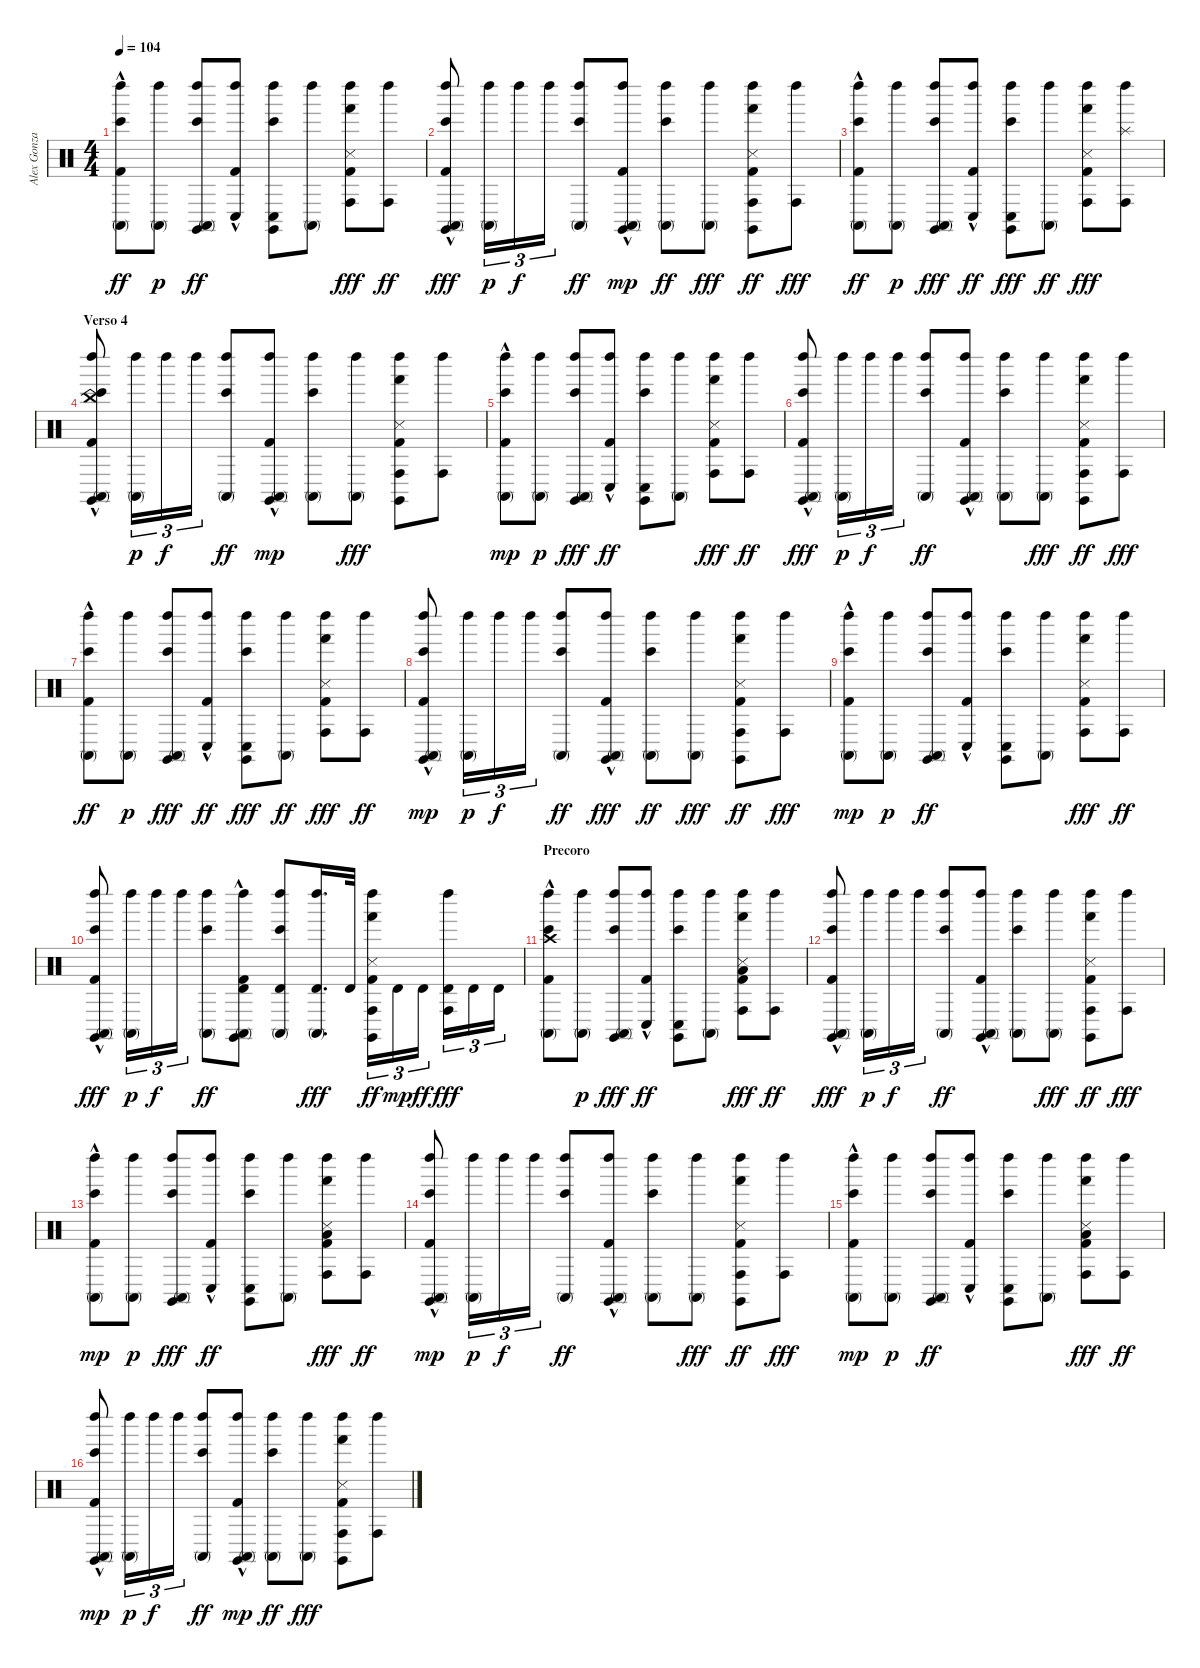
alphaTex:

\track ("Alex Gonzalez" "Alex Gonza") {instrument percussion}
\staff {score}
\articulation defaults
\ts (4 4)
\tempo 104
\clef neutral
\ks c
("Conga high (mute)" "Kick (hit) 2"{hac} "Bongo High (hit)" "Left Maraca (hit)").8{dy ff} ("Conga high (mute)" "Left Maraca (hit)").8{dy p} ("Left Maraca (hit)" "Conga high (mute)" "Claves (hit)" "Bongo High (hit)").8{dy ff} ("Conga low (hit)" "Kick (hit) 2"{hac} "Left Maraca (hit)").8 ("Claves (hit)" "Conga low (hit)" "Bongo High (hit)" "Left Maraca (hit)").8 ("Conga high (mute)" "Left Maraca (hit)").8 ("Left Maraca (hit)" "Conga high (hit)" "Snare (side stick) 3" "Hand (hit)" "Kick (hit) 2").8{dy fff} ("Conga high (hit)" "Left Maraca (hit)").8{dy ff} |
("Conga high (mute)" "Claves (hit)"{hac} "Kick (hit) 2"{hac} "Bongo High (hit)" "Left Maraca (hit)").8{dy fff} ("Conga high (mute)" "Left Maraca (hit)").16{tu (3 2) dy p} "Left Maraca (hit)".16{tu (3 2) dy f} "Left Maraca (hit)".16{tu (3 2)} ("Conga high (mute)" "Bongo High (hit)" "Left Maraca (hit)").8{dy ff} ("Kick (hit) 2"{hac} "Left Maraca (hit)" "Claves (hit)"{hac} "Conga high (mute)").8{dy mp} ("Conga high (mute)" "Bongo High (hit)" "Left Maraca (hit)").8{dy ff} ("Conga high (mute)" "Left Maraca (hit)").8{dy fff} ("Conga high (hit)" "Kick (hit) 2" "Hand (hit)" "Snare (side stick) 3" "Left Maraca (hit)" "Claves (hit)").8{dy ff} ("Conga high (hit)" "Left Maraca (hit)").8{dy fff} |
("Bongo High (hit)" "Conga high (mute)" "Kick (hit) 2"{hac} "Left Maraca (hit)").8{dy ff} ("Conga high (mute)" "Left Maraca (hit)").8{dy p} ("Claves (hit)" "Conga high (mute)" "Bongo High (hit)" "Left Maraca (hit)").8{dy fff} ("Conga low (hit)" "Kick (hit) 2"{hac} "Left Maraca (hit)").8{dy ff} ("Conga low (hit)" "Left Maraca (hit)" "Bongo High (hit)" "Claves (hit)").8{dy fff} ("Conga high (mute)" "Left Maraca (hit)").8{dy ff} ("Left Maraca (hit)" "Snare (side stick) 3" "Kick (hit) 2" "Hand (hit)" "Conga high (hit)").8{dy fff} ("Conga high (hit)" "Left Maraca (hit)" "Splash (hit)").8 |
\section ("" "Verso 4")
("Claves (hit)"{hac} "Bongo High (hit)" "China (hit)" "Kick (hit) 2"{hac} "Conga high (mute)" "Left Maraca (hit)").8 ("Conga high (mute)" "Left Maraca (hit)").16{tu (3 2) dy p} "Left Maraca (hit)".16{tu (3 2) dy f} "Left Maraca (hit)".16{tu (3 2)} ("Conga high (mute)" "Bongo High (hit)" "Left Maraca (hit)").8{dy ff} ("Left Maraca (hit)" "Kick (hit) 2"{hac} "Conga high (mute)" "Claves (hit)"{hac}).8{dy mp} ("Bongo High (hit)" "Left Maraca (hit)" "Conga high (mute)").8 ("Conga high (mute)" "Left Maraca (hit)").8{dy fff} ("Left Maraca (hit)" "Conga high (hit)" "Snare (side stick) 3" "Kick (hit) 2" "Hand (hit)" "Claves (hit)").8 ("Conga high (hit)" "Left Maraca (hit)").8 |
("Left Maraca (hit)" "Bongo High (hit)" "Kick (hit) 2"{hac} "Conga high (mute)").8{dy mp} ("Conga high (mute)" "Left Maraca (hit)").8{dy p} ("Claves (hit)" "Conga high (mute)" "Bongo High (hit)" "Left Maraca (hit)").8{dy fff} ("Conga low (hit)" "Kick (hit) 2"{hac} "Left Maraca (hit)").8{dy ff} ("Bongo High (hit)" "Conga low (hit)" "Left Maraca (hit)" "Claves (hit)").8 ("Conga high (mute)" "Left Maraca (hit)").8 ("Hand (hit)" "Kick (hit) 2" "Conga high (hit)" "Snare (side stick) 3" "Left Maraca (hit)").8{dy fff} ("Conga high (hit)" "Left Maraca (hit)").8{dy ff} |
("Conga high (mute)" "Claves (hit)"{hac} "Kick (hit) 2"{hac} "Bongo High (hit)" "Left Maraca (hit)").8{dy fff} ("Conga high (mute)" "Left Maraca (hit)").16{tu (3 2) dy p} "Left Maraca (hit)".16{tu (3 2) dy f} "Left Maraca (hit)".16{tu (3 2)} ("Conga high (mute)" "Bongo High (hit)" "Left Maraca (hit)").8{dy ff} ("Claves (hit)"{hac} "Conga high (mute)" "Kick (hit) 2"{hac} "Left Maraca (hit)").8 ("Conga high (mute)" "Bongo High (hit)" "Left Maraca (hit)").8 ("Conga high (mute)" "Left Maraca (hit)").8{dy fff} ("Claves (hit)" "Conga high (hit)" "Kick (hit) 2" "Snare (side stick) 3" "Hand (hit)" "Left Maraca (hit)").8{dy ff} ("Conga high (hit)" "Left Maraca (hit)").8{dy fff} |
("Conga high (mute)" "Kick (hit) 2"{hac} "Bongo High (hit)" "Left Maraca (hit)").8{dy ff} ("Conga high (mute)" "Left Maraca (hit)").8{dy p} ("Claves (hit)" "Conga high (mute)" "Bongo High (hit)" "Left Maraca (hit)").8{dy fff} ("Conga low (hit)" "Kick (hit) 2"{hac} "Left Maraca (hit)").8{dy ff} ("Conga low (hit)" "Claves (hit)" "Left Maraca (hit)" "Bongo High (hit)").8{dy fff} ("Conga high (mute)" "Left Maraca (hit)").8{dy ff} ("Conga high (hit)" "Kick (hit) 2" "Hand (hit)" "Left Maraca (hit)" "Snare (side stick) 3").8{dy fff} ("Conga high (hit)" "Left Maraca (hit)").8{dy ff} |
("Bongo High (hit)" "Claves (hit)"{hac} "Kick (hit) 2"{hac} "Left Maraca (hit)" "Conga high (mute)").8{dy mp} ("Conga high (mute)" "Left Maraca (hit)").16{tu (3 2) dy p} "Left Maraca (hit)".16{tu (3 2) dy f} "Left Maraca (hit)".16{tu (3 2)} ("Conga high (mute)" "Bongo High (hit)" "Left Maraca (hit)").8{dy ff} ("Conga high (mute)" "Left Maraca (hit)" "Kick (hit) 2"{hac} "Claves (hit)"{hac}).8{dy fff} ("Conga high (mute)" "Bongo High (hit)" "Left Maraca (hit)").8{dy ff} ("Conga high (mute)" "Left Maraca (hit)").8{dy fff} ("Claves (hit)" "Conga high (hit)" "Kick (hit) 2" "Snare (side stick) 3" "Hand (hit)" "Left Maraca (hit)").8{dy ff} ("Conga high (hit)" "Left Maraca (hit)").8{dy fff} |
("Bongo High (hit)" "Kick (hit) 2"{hac} "Left Maraca (hit)" "Conga high (mute)").8{dy mp} ("Conga high (mute)" "Left Maraca (hit)").8{dy p} ("Claves (hit)" "Left Maraca (hit)" "Conga high (mute)" "Bongo High (hit)").8{dy ff} ("Kick (hit) 2"{hac} "Left Maraca (hit)" "Conga low (hit)").8 ("Claves (hit)" "Conga low (hit)" "Bongo High (hit)" "Left Maraca (hit)").8 ("Conga high (mute)" "Left Maraca (hit)").8 ("Hand (hit)" "Conga high (hit)" "Snare (side stick) 3" "Kick (hit) 2" "Left Maraca (hit)").8{dy fff} ("Conga high (hit)" "Left Maraca (hit)").8{dy ff} |
("Conga high (mute)" "Claves (hit)"{hac} "Kick (hit) 2"{hac} "Bongo High (hit)" "Left Maraca (hit)").8{dy fff} ("Conga high (mute)" "Left Maraca (hit)").16{tu (3 2) dy p} "Left Maraca (hit)".16{tu (3 2) dy f} "Left Maraca (hit)".16{tu (3 2)} ("Left Maraca (hit)" "Conga high (mute)" "Bongo High (hit)").8{dy ff} ("Kick (hit) 2"{hac} "Conga high (mute)" "Claves (hit)"{hac} "Timbale high (hit)" "Left Maraca (hit)").8 ("Timbale high (hit)" "Conga high (mute)" "Bongo High (hit)" "Left Maraca (hit)").8 ("Timbale high (hit)" "Conga high (mute)" "Left Maraca (hit)").16{d dy fff} "Timbale high (hit)".32 ("Claves (hit)" "Conga high (hit)" "Kick (hit) 2" "Snare (side stick) 3" "Hand (hit)" "Left Maraca (hit)").16{tu (3 2) dy ff} "Timbale high (hit)".16{tu (3 2) dy mp} "Timbale high (hit)".16{tu (3 2) dy ff} ("Timbale high (hit)" "Conga high (hit)" "Left Maraca (hit)").16{tu (3 2) dy fff} "Timbale high (hit)".16{tu (3 2)} "Timbale high (hit)".16{tu (3 2)} |
\section ("" "Precoro")
("Bongo High (hit)" "Conga high (mute)" "Kick (hit) 2"{hac} "Left Maraca (hit)" "Crash high (hit)").8 ("Conga high (mute)" "Left Maraca (hit)").8{dy p} ("Claves (hit)" "Bongo High (hit)" "Left Maraca (hit)" "Conga high (mute)").8{dy fff} ("Left Maraca (hit)" "Conga low (hit)" "Kick (hit) 2"{hac}).8{dy ff} ("Claves (hit)" "Conga low (hit)" "Bongo High (hit)" "Left Maraca (hit)").8 ("Conga high (mute)" "Left Maraca (hit)").8 ("Left Maraca (hit)" "Snare (side stick) 3" "Low Tom (hit)" "Conga high (hit)" "Hand (hit)" "Kick (hit) 2").8{dy fff} ("Conga high (hit)" "Left Maraca (hit)").8{dy ff} |
("Bongo High (hit)" "Claves (hit)"{hac} "Left Maraca (hit)" "Conga high (mute)" "Kick (hit) 2"{hac}).8{dy fff} ("Conga high (mute)" "Left Maraca (hit)").16{tu (3 2) dy p} "Left Maraca (hit)".16{tu (3 2) dy f} "Left Maraca (hit)".16{tu (3 2)} ("Left Maraca (hit)" "Conga high (mute)" "Bongo High (hit)").8{dy ff} ("Claves (hit)"{hac} "Conga high (mute)" "Kick (hit) 2"{hac} "Left Maraca (hit)").8 ("Conga high (mute)" "Bongo High (hit)" "Left Maraca (hit)").8 ("Conga high (mute)" "Left Maraca (hit)").8{dy fff} ("Claves (hit)" "Conga high (hit)" "Kick (hit) 2" "Snare (side stick) 3" "Hand (hit)" "Left Maraca (hit)").8{dy ff} ("Conga high (hit)" "Left Maraca (hit)").8{dy fff} |
("Left Maraca (hit)" "Bongo High (hit)" "Kick (hit) 2"{hac} "Conga high (mute)").8{dy mp} ("Conga high (mute)" "Left Maraca (hit)").8{dy p} ("Left Maraca (hit)" "Bongo High (hit)" "Conga high (mute)" "Claves (hit)").8{dy fff} ("Conga low (hit)" "Kick (hit) 2"{hac} "Left Maraca (hit)").8{dy ff} ("Bongo High (hit)" "Left Maraca (hit)" "Claves (hit)" "Conga low (hit)").8 ("Conga high (mute)" "Left Maraca (hit)").8 ("Low Tom (hit)" "Snare (side stick) 3" "Kick (hit) 2" "Hand (hit)" "Left Maraca (hit)" "Conga high (hit)").8{dy fff} ("Conga high (hit)" "Left Maraca (hit)").8{dy ff} |
("Kick (hit) 2"{hac} "Claves (hit)"{hac} "Left Maraca (hit)" "Bongo High (hit)" "Conga high (mute)").8{dy mp} ("Conga high (mute)" "Left Maraca (hit)").16{tu (3 2) dy p} "Left Maraca (hit)".16{tu (3 2) dy f} "Left Maraca (hit)".16{tu (3 2)} ("Conga high (mute)" "Bongo High (hit)" "Left Maraca (hit)").8{dy ff} ("Claves (hit)"{hac} "Conga high (mute)" "Kick (hit) 2"{hac} "Left Maraca (hit)").8 ("Left Maraca (hit)" "Conga high (mute)" "Bongo High (hit)").8 ("Conga high (mute)" "Left Maraca (hit)").8{dy fff} ("Claves (hit)" "Conga high (hit)" "Kick (hit) 2" "Snare (side stick) 3" "Hand (hit)" "Left Maraca (hit)").8{dy ff} ("Conga high (hit)" "Left Maraca (hit)").8{dy fff} |
("Left Maraca (hit)" "Bongo High (hit)" "Kick (hit) 2"{hac} "Conga high (mute)").8{dy mp} ("Conga high (mute)" "Left Maraca (hit)").8{dy p} ("Conga high (mute)" "Claves (hit)" "Left Maraca (hit)" "Bongo High (hit)").8{dy ff} ("Conga low (hit)" "Kick (hit) 2"{hac} "Left Maraca (hit)").8 ("Claves (hit)" "Conga low (hit)" "Bongo High (hit)" "Left Maraca (hit)").8 ("Conga high (mute)" "Left Maraca (hit)").8 ("Conga high (hit)" "Kick (hit) 2" "Snare (side stick) 3" "Hand (hit)" "Left Maraca (hit)" "Low Tom (hit)").8{dy fff} ("Conga high (hit)" "Left Maraca (hit)").8{dy ff} |
("Claves (hit)"{hac} "Kick (hit) 2"{hac} "Left Maraca (hit)" "Conga high (mute)" "Bongo High (hit)").8{dy mp} ("Conga high (mute)" "Left Maraca (hit)").16{tu (3 2) dy p} "Left Maraca (hit)".16{tu (3 2) dy f} "Left Maraca (hit)".16{tu (3 2)} ("Conga high (mute)" "Bongo High (hit)" "Left Maraca (hit)").8{dy ff} ("Left Maraca (hit)" "Kick (hit) 2"{hac} "Conga high (mute)" "Claves (hit)"{hac}).8{dy mp} ("Conga high (mute)" "Bongo High (hit)" "Left Maraca (hit)").8{dy ff} ("Conga high (mute)" "Left Maraca (hit)").8{dy fff} ("Conga high (hit)" "Left Maraca (hit)" "Claves (hit)" "Snare (side stick) 3" "Kick (hit) 2" "Hand (hit)").8 ("Conga high (hit)" "Left Maraca (hit)").8
